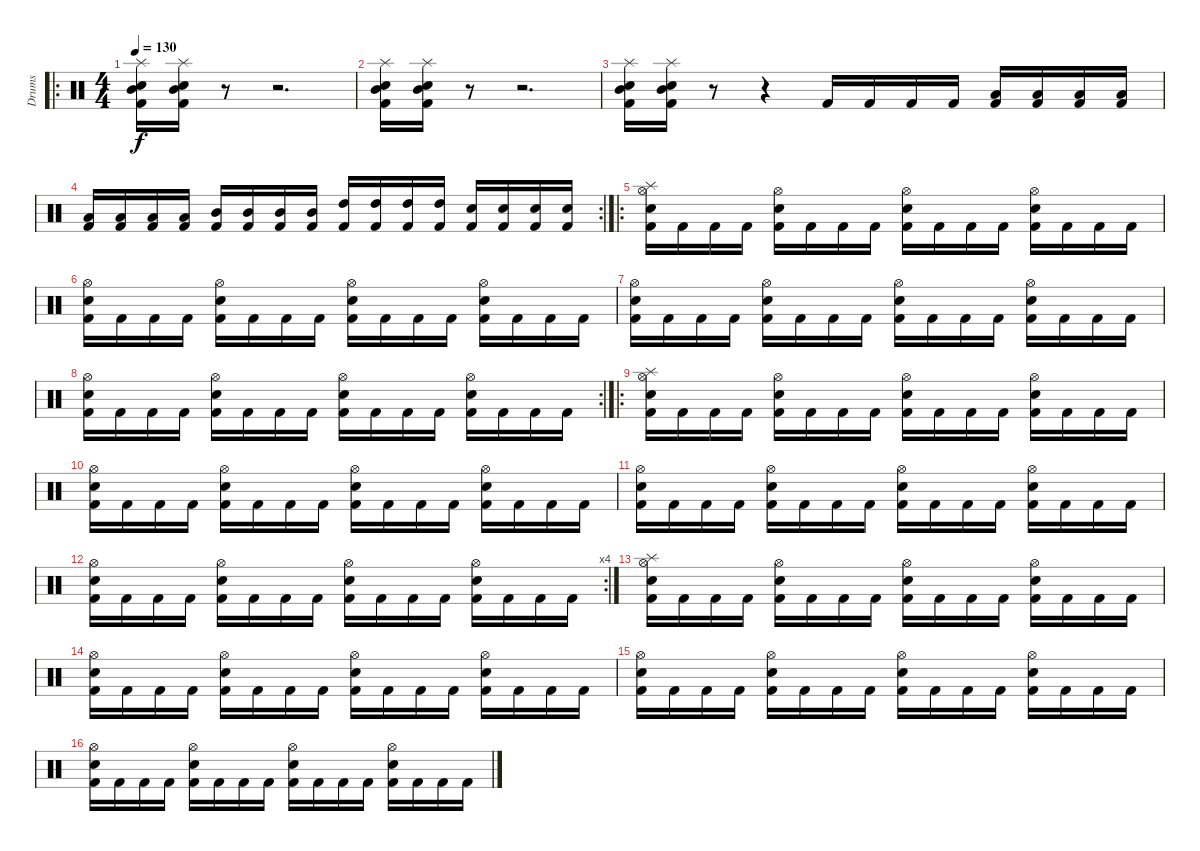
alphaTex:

\track ("Drums" "Drums") {instrument percussion}
\staff {score}
\articulation defaults
\ro
\ts (4 4)
\tempo 130
\clef neutral
\ks c
("Splash (hit)" "Mid Tom (hit)" "Snare (hit) 2" "Kick (hit) 2").16{dy f} ("Splash (hit)" "Mid Tom (hit)" "Snare (hit) 2" "Kick (hit) 2").16 r.8 r.2{d} |
("Splash (hit)" "Mid Tom (hit)" "Snare (hit) 2" "Kick (hit) 2").16 ("Splash (hit)" "Mid Tom (hit)" "Snare (hit) 2" "Kick (hit) 2").16 r.8 r.2{d} |
("Splash (hit)" "Mid Tom (hit)" "Snare (hit) 2" "Kick (hit) 2").16 ("Splash (hit)" "Mid Tom (hit)" "Snare (hit) 2" "Kick (hit) 2").16 r.8 r.4 "Kick (hit) 2".16 "Kick (hit) 2".16 "Kick (hit) 2".16 "Kick (hit) 2".16 ("Low Floor Tom (hit)" "Kick (hit) 2").16 ("Low Floor Tom (hit)" "Kick (hit) 2").16 ("Low Floor Tom (hit)" "Kick (hit) 2").16 ("Low Floor Tom (hit)" "Kick (hit) 2").16 |
\rc 2
("Low Tom (hit)" "Kick (hit) 2").16 ("Low Tom (hit)" "Kick (hit) 2").16 ("Low Tom (hit)" "Kick (hit) 2").16 ("Low Tom (hit)" "Kick (hit) 2").16 ("Mid Tom (hit)" "Kick (hit) 2").16 ("Mid Tom (hit)" "Kick (hit) 2").16 ("Mid Tom (hit)" "Kick (hit) 2").16 ("Mid Tom (hit)" "Kick (hit) 2").16 ("High Tom (hit)" "Kick (hit) 2").16 ("High Tom (hit)" "Kick (hit) 2").16 ("High Tom (hit)" "Kick (hit) 2").16 ("High Tom (hit)" "Kick (hit) 2").16 ("Snare (hit) 2" "Kick (hit) 2").16 ("Snare (hit) 2" "Kick (hit) 2").16 ("Snare (hit) 2" "Kick (hit) 2").16 ("Snare (hit) 2" "Kick (hit) 2").16 |
\ro
("Splash (hit)" "Kick (hit) 2" "Hi-Hat (open)" "Snare (hit) 2").16 "Kick (hit) 2".16 "Kick (hit) 2".16 "Kick (hit) 2".16 ("Hi-Hat (open)" "Snare (hit) 2" "Kick (hit) 2").16 "Kick (hit) 2".16 "Kick (hit) 2".16 "Kick (hit) 2".16 ("Kick (hit) 2" "Hi-Hat (open)" "Snare (hit) 2").16 "Kick (hit) 2".16 "Kick (hit) 2".16 "Kick (hit) 2".16 ("Hi-Hat (open)" "Snare (hit) 2" "Kick (hit) 2").16 "Kick (hit) 2".16 "Kick (hit) 2".16 "Kick (hit) 2".16 |
("Kick (hit) 2" "Hi-Hat (open)" "Snare (hit) 2").16 "Kick (hit) 2".16 "Kick (hit) 2".16 "Kick (hit) 2".16 ("Hi-Hat (open)" "Snare (hit) 2" "Kick (hit) 2").16 "Kick (hit) 2".16 "Kick (hit) 2".16 "Kick (hit) 2".16 ("Kick (hit) 2" "Hi-Hat (open)" "Snare (hit) 2").16 "Kick (hit) 2".16 "Kick (hit) 2".16 "Kick (hit) 2".16 ("Hi-Hat (open)" "Snare (hit) 2" "Kick (hit) 2").16 "Kick (hit) 2".16 "Kick (hit) 2".16 "Kick (hit) 2".16 |
("Kick (hit) 2" "Hi-Hat (open)" "Snare (hit) 2").16 "Kick (hit) 2".16 "Kick (hit) 2".16 "Kick (hit) 2".16 ("Hi-Hat (open)" "Snare (hit) 2" "Kick (hit) 2").16 "Kick (hit) 2".16 "Kick (hit) 2".16 "Kick (hit) 2".16 ("Kick (hit) 2" "Hi-Hat (open)" "Snare (hit) 2").16 "Kick (hit) 2".16 "Kick (hit) 2".16 "Kick (hit) 2".16 ("Hi-Hat (open)" "Snare (hit) 2" "Kick (hit) 2").16 "Kick (hit) 2".16 "Kick (hit) 2".16 "Kick (hit) 2".16 |
\rc 2
("Kick (hit) 2" "Hi-Hat (open)" "Snare (hit) 2").16 "Kick (hit) 2".16 "Kick (hit) 2".16 "Kick (hit) 2".16 ("Hi-Hat (open)" "Snare (hit) 2" "Kick (hit) 2").16 "Kick (hit) 2".16 "Kick (hit) 2".16 "Kick (hit) 2".16 ("Kick (hit) 2" "Hi-Hat (open)" "Snare (hit) 2").16 "Kick (hit) 2".16 "Kick (hit) 2".16 "Kick (hit) 2".16 ("Hi-Hat (open)" "Snare (hit) 2" "Kick (hit) 2").16 "Kick (hit) 2".16 "Kick (hit) 2".16 "Kick (hit) 2".16 |
\ro
("Snare (hit) 2" "Splash (hit)" "Hi-Hat (open)" "Kick (hit) 2").16 "Kick (hit) 2".16 "Kick (hit) 2".16 "Kick (hit) 2".16 ("Hi-Hat (open)" "Snare (hit) 2" "Kick (hit) 2").16 "Kick (hit) 2".16 "Kick (hit) 2".16 "Kick (hit) 2".16 ("Snare (hit) 2" "Hi-Hat (open)" "Kick (hit) 2").16 "Kick (hit) 2".16 "Kick (hit) 2".16 "Kick (hit) 2".16 ("Hi-Hat (open)" "Snare (hit) 2" "Kick (hit) 2").16 "Kick (hit) 2".16 "Kick (hit) 2".16 "Kick (hit) 2".16 |
("Kick (hit) 2" "Hi-Hat (open)" "Snare (hit) 2").16 "Kick (hit) 2".16 "Kick (hit) 2".16 "Kick (hit) 2".16 ("Hi-Hat (open)" "Snare (hit) 2" "Kick (hit) 2").16 "Kick (hit) 2".16 "Kick (hit) 2".16 "Kick (hit) 2".16 ("Kick (hit) 2" "Hi-Hat (open)" "Snare (hit) 2").16 "Kick (hit) 2".16 "Kick (hit) 2".16 "Kick (hit) 2".16 ("Hi-Hat (open)" "Snare (hit) 2" "Kick (hit) 2").16 "Kick (hit) 2".16 "Kick (hit) 2".16 "Kick (hit) 2".16 |
("Kick (hit) 2" "Hi-Hat (open)" "Snare (hit) 2").16 "Kick (hit) 2".16 "Kick (hit) 2".16 "Kick (hit) 2".16 ("Hi-Hat (open)" "Snare (hit) 2" "Kick (hit) 2").16 "Kick (hit) 2".16 "Kick (hit) 2".16 "Kick (hit) 2".16 ("Kick (hit) 2" "Hi-Hat (open)" "Snare (hit) 2").16 "Kick (hit) 2".16 "Kick (hit) 2".16 "Kick (hit) 2".16 ("Hi-Hat (open)" "Snare (hit) 2" "Kick (hit) 2").16 "Kick (hit) 2".16 "Kick (hit) 2".16 "Kick (hit) 2".16 |
\rc 4
("Kick (hit) 2" "Hi-Hat (open)" "Snare (hit) 2").16 "Kick (hit) 2".16 "Kick (hit) 2".16 "Kick (hit) 2".16 ("Hi-Hat (open)" "Snare (hit) 2" "Kick (hit) 2").16 "Kick (hit) 2".16 "Kick (hit) 2".16 "Kick (hit) 2".16 ("Kick (hit) 2" "Hi-Hat (open)" "Snare (hit) 2").16 "Kick (hit) 2".16 "Kick (hit) 2".16 "Kick (hit) 2".16 ("Hi-Hat (open)" "Snare (hit) 2" "Kick (hit) 2").16 "Kick (hit) 2".16 "Kick (hit) 2".16 "Kick (hit) 2".16 |
("Snare (hit) 2" "Splash (hit)" "Hi-Hat (open)" "Kick (hit) 2").16 "Kick (hit) 2".16 "Kick (hit) 2".16 "Kick (hit) 2".16 ("Hi-Hat (open)" "Snare (hit) 2" "Kick (hit) 2").16 "Kick (hit) 2".16 "Kick (hit) 2".16 "Kick (hit) 2".16 ("Snare (hit) 2" "Hi-Hat (open)" "Kick (hit) 2").16 "Kick (hit) 2".16 "Kick (hit) 2".16 "Kick (hit) 2".16 ("Hi-Hat (open)" "Snare (hit) 2" "Kick (hit) 2").16 "Kick (hit) 2".16 "Kick (hit) 2".16 "Kick (hit) 2".16 |
("Kick (hit) 2" "Hi-Hat (open)" "Snare (hit) 2").16 "Kick (hit) 2".16 "Kick (hit) 2".16 "Kick (hit) 2".16 ("Hi-Hat (open)" "Snare (hit) 2" "Kick (hit) 2").16 "Kick (hit) 2".16 "Kick (hit) 2".16 "Kick (hit) 2".16 ("Kick (hit) 2" "Hi-Hat (open)" "Snare (hit) 2").16 "Kick (hit) 2".16 "Kick (hit) 2".16 "Kick (hit) 2".16 ("Hi-Hat (open)" "Snare (hit) 2" "Kick (hit) 2").16 "Kick (hit) 2".16 "Kick (hit) 2".16 "Kick (hit) 2".16 |
("Kick (hit) 2" "Hi-Hat (open)" "Snare (hit) 2").16 "Kick (hit) 2".16 "Kick (hit) 2".16 "Kick (hit) 2".16 ("Hi-Hat (open)" "Snare (hit) 2" "Kick (hit) 2").16 "Kick (hit) 2".16 "Kick (hit) 2".16 "Kick (hit) 2".16 ("Kick (hit) 2" "Hi-Hat (open)" "Snare (hit) 2").16 "Kick (hit) 2".16 "Kick (hit) 2".16 "Kick (hit) 2".16 ("Hi-Hat (open)" "Snare (hit) 2" "Kick (hit) 2").16 "Kick (hit) 2".16 "Kick (hit) 2".16 "Kick (hit) 2".16 |
("Kick (hit) 2" "Hi-Hat (open)" "Snare (hit) 2").16 "Kick (hit) 2".16 "Kick (hit) 2".16 "Kick (hit) 2".16 ("Hi-Hat (open)" "Snare (hit) 2" "Kick (hit) 2").16 "Kick (hit) 2".16 "Kick (hit) 2".16 "Kick (hit) 2".16 ("Kick (hit) 2" "Hi-Hat (open)" "Snare (hit) 2").16 "Kick (hit) 2".16 "Kick (hit) 2".16 "Kick (hit) 2".16 ("Hi-Hat (open)" "Snare (hit) 2" "Kick (hit) 2").16 "Kick (hit) 2".16 "Kick (hit) 2".16 "Kick (hit) 2".16
